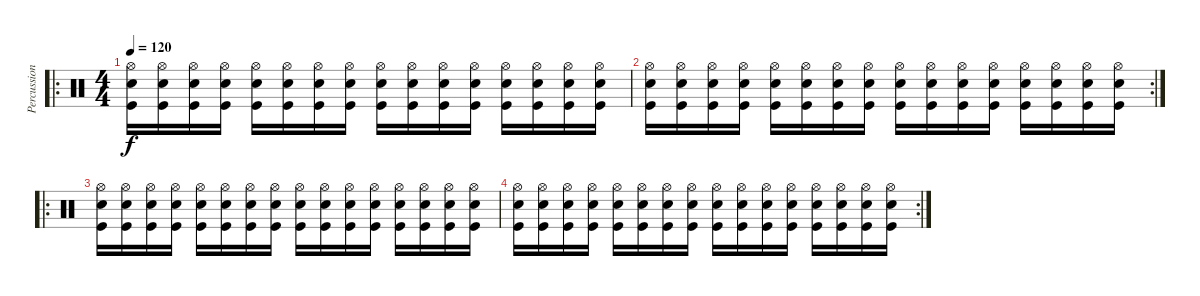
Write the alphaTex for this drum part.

\track ("Percussion" "Percussion") {instrument percussion}
\staff {score}
\articulation defaults
\ro
\ts (4 4)
\tempo 120
\clef neutral
\ks c
("Hi-Hat (open)" "Snare (hit) 2" "Kick (hit)").16{dy f} ("Hi-Hat (open)" "Snare (hit) 2" "Kick (hit)").16 ("Hi-Hat (open)" "Snare (hit) 2" "Kick (hit)").16 ("Hi-Hat (open)" "Snare (hit) 2" "Kick (hit)").16 ("Hi-Hat (open)" "Snare (hit) 2" "Kick (hit)").16 ("Hi-Hat (open)" "Snare (hit) 2" "Kick (hit)").16 ("Hi-Hat (open)" "Snare (hit) 2" "Kick (hit)").16 ("Hi-Hat (open)" "Snare (hit) 2" "Kick (hit)").16 ("Hi-Hat (open)" "Snare (hit) 2" "Kick (hit)").16 ("Hi-Hat (open)" "Snare (hit) 2" "Kick (hit)").16 ("Hi-Hat (open)" "Snare (hit) 2" "Kick (hit)").16 ("Hi-Hat (open)" "Snare (hit) 2" "Kick (hit)").16 ("Hi-Hat (open)" "Snare (hit) 2" "Kick (hit)").16 ("Hi-Hat (open)" "Snare (hit) 2" "Kick (hit)").16 ("Hi-Hat (open)" "Snare (hit) 2" "Kick (hit)").16 ("Hi-Hat (open)" "Snare (hit) 2" "Kick (hit)").16 |
\rc 2
("Hi-Hat (open)" "Snare (hit) 2" "Kick (hit)").16 ("Hi-Hat (open)" "Snare (hit) 2" "Kick (hit)").16 ("Hi-Hat (open)" "Snare (hit) 2" "Kick (hit)").16 ("Hi-Hat (open)" "Snare (hit) 2" "Kick (hit)").16 ("Hi-Hat (open)" "Snare (hit) 2" "Kick (hit)").16 ("Hi-Hat (open)" "Snare (hit) 2" "Kick (hit)").16 ("Hi-Hat (open)" "Snare (hit) 2" "Kick (hit)").16 ("Hi-Hat (open)" "Snare (hit) 2" "Kick (hit)").16 ("Hi-Hat (open)" "Snare (hit) 2" "Kick (hit)").16 ("Hi-Hat (open)" "Snare (hit) 2" "Kick (hit)").16 ("Hi-Hat (open)" "Snare (hit) 2" "Kick (hit)").16 ("Hi-Hat (open)" "Snare (hit) 2" "Kick (hit)").16 ("Hi-Hat (open)" "Snare (hit) 2" "Kick (hit)").16 ("Hi-Hat (open)" "Snare (hit) 2" "Kick (hit)").16 ("Hi-Hat (open)" "Snare (hit) 2" "Kick (hit)").16 ("Hi-Hat (open)" "Snare (hit) 2" "Kick (hit)").16 |
\ro
("Hi-Hat (open)" "Snare (hit) 2" "Kick (hit)").16 ("Hi-Hat (open)" "Snare (hit) 2" "Kick (hit)").16 ("Hi-Hat (open)" "Snare (hit) 2" "Kick (hit)").16 ("Hi-Hat (open)" "Snare (hit) 2" "Kick (hit)").16 ("Hi-Hat (open)" "Snare (hit) 2" "Kick (hit)").16 ("Hi-Hat (open)" "Snare (hit) 2" "Kick (hit)").16 ("Hi-Hat (open)" "Snare (hit) 2" "Kick (hit)").16 ("Hi-Hat (open)" "Snare (hit) 2" "Kick (hit)").16 ("Hi-Hat (open)" "Snare (hit) 2" "Kick (hit)").16 ("Hi-Hat (open)" "Snare (hit) 2" "Kick (hit)").16 ("Hi-Hat (open)" "Snare (hit) 2" "Kick (hit)").16 ("Hi-Hat (open)" "Snare (hit) 2" "Kick (hit)").16 ("Hi-Hat (open)" "Snare (hit) 2" "Kick (hit)").16 ("Hi-Hat (open)" "Snare (hit) 2" "Kick (hit)").16 ("Hi-Hat (open)" "Snare (hit) 2" "Kick (hit)").16 ("Hi-Hat (open)" "Snare (hit) 2" "Kick (hit)").16 |
\rc 2
("Hi-Hat (open)" "Snare (hit) 2" "Kick (hit)").16 ("Hi-Hat (open)" "Snare (hit) 2" "Kick (hit)").16 ("Hi-Hat (open)" "Snare (hit) 2" "Kick (hit)").16 ("Hi-Hat (open)" "Snare (hit) 2" "Kick (hit)").16 ("Hi-Hat (open)" "Snare (hit) 2" "Kick (hit)").16 ("Hi-Hat (open)" "Snare (hit) 2" "Kick (hit)").16 ("Hi-Hat (open)" "Snare (hit) 2" "Kick (hit)").16 ("Hi-Hat (open)" "Snare (hit) 2" "Kick (hit)").16 ("Hi-Hat (open)" "Snare (hit) 2" "Kick (hit)").16 ("Hi-Hat (open)" "Snare (hit) 2" "Kick (hit)").16 ("Hi-Hat (open)" "Snare (hit) 2" "Kick (hit)").16 ("Hi-Hat (open)" "Snare (hit) 2" "Kick (hit)").16 ("Hi-Hat (open)" "Snare (hit) 2" "Kick (hit)").16 ("Hi-Hat (open)" "Snare (hit) 2" "Kick (hit)").16 ("Hi-Hat (open)" "Snare (hit) 2" "Kick (hit)").16 ("Hi-Hat (open)" "Snare (hit) 2" "Kick (hit)").16
